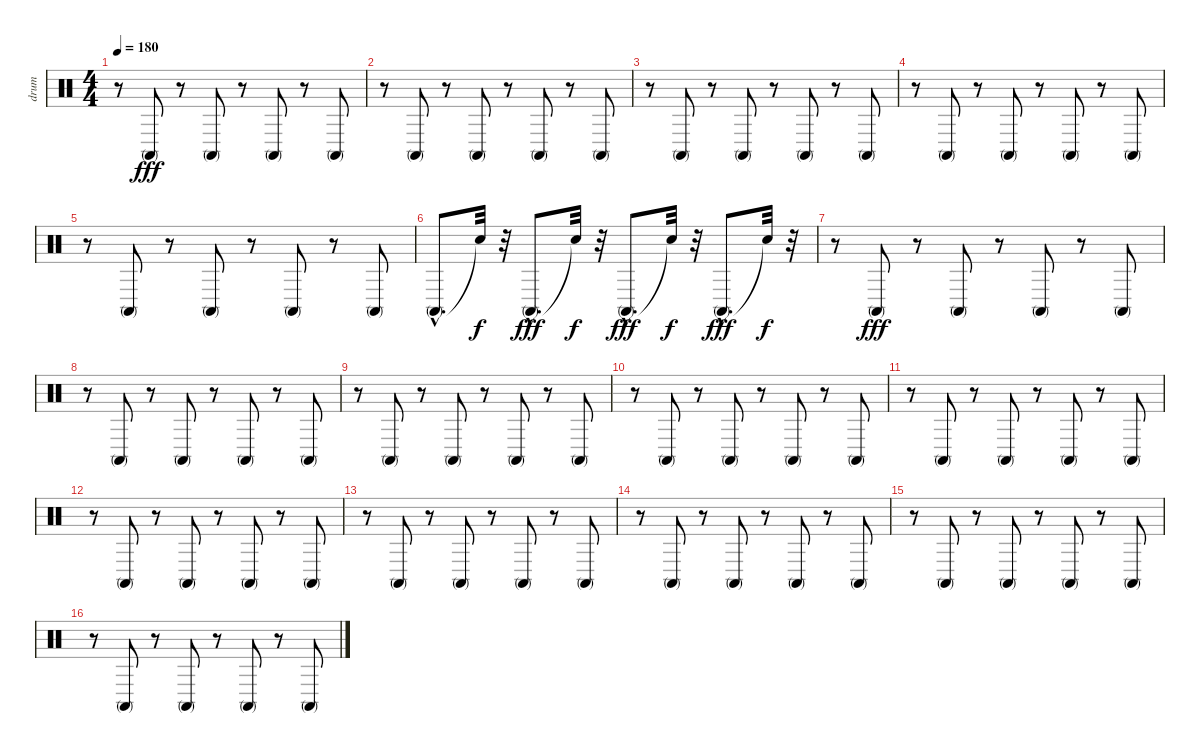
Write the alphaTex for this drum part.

\track ("drum" "drum") {instrument percussion}
\staff {score}
\articulation defaults
\ts (4 4)
\tempo 180
\clef neutral
\ks c
r.8{dy fff} "Conga high (mute)".8 r.8 "Conga high (mute)".8 r.8 "Conga high (mute)".8 r.8 "Conga high (mute)".8 |
r.8 "Conga high (mute)".8 r.8 "Conga high (mute)".8 r.8 "Conga high (mute)".8 r.8 "Conga high (mute)".8 |
r.8 "Conga high (mute)".8 r.8 "Conga high (mute)".8 r.8 "Conga high (mute)".8 r.8 "Conga high (mute)".8 |
r.8 "Conga high (mute)".8 r.8 "Conga high (mute)".8 r.8 "Conga high (mute)".8 r.8 "Conga high (mute)".8 |
r.8 "Conga high (mute)".8 r.8 "Conga high (mute)".8 r.8 "Conga high (mute)".8 r.8 "Conga high (mute)".8 |
"Conga high (mute)"{hac}.8{d} "Snare (hit)"{t}.32{dy f} r.32 "Conga high (mute)"{hac}.8{d dy fff} "Snare (hit)"{t}.32{dy f} r.32 "Conga high (mute)"{hac}.8{d dy fff} "Snare (hit)"{t}.32{dy f} r.32 "Conga high (mute)"{hac}.8{d dy fff} "Snare (hit)"{t}.32{dy f} r.32 |
r.8 "Conga high (mute)".8{dy fff} r.8 "Conga high (mute)".8 r.8 "Conga high (mute)".8 r.8 "Conga high (mute)".8 |
r.8 "Conga high (mute)".8 r.8 "Conga high (mute)".8 r.8 "Conga high (mute)".8 r.8 "Conga high (mute)".8 |
r.8 "Conga high (mute)".8 r.8 "Conga high (mute)".8 r.8 "Conga high (mute)".8 r.8 "Conga high (mute)".8 |
r.8 "Conga high (mute)".8 r.8 "Conga high (mute)".8 r.8 "Conga high (mute)".8 r.8 "Conga high (mute)".8 |
r.8 "Conga high (mute)".8 r.8 "Conga high (mute)".8 r.8 "Conga high (mute)".8 r.8 "Conga high (mute)".8 |
r.8 "Conga high (mute)".8 r.8 "Conga high (mute)".8 r.8 "Conga high (mute)".8 r.8 "Conga high (mute)".8 |
r.8 "Conga high (mute)".8 r.8 "Conga high (mute)".8 r.8 "Conga high (mute)".8 r.8 "Conga high (mute)".8 |
r.8 "Conga high (mute)".8 r.8 "Conga high (mute)".8 r.8 "Conga high (mute)".8 r.8 "Conga high (mute)".8 |
r.8 "Conga high (mute)".8 r.8 "Conga high (mute)".8 r.8 "Conga high (mute)".8 r.8 "Conga high (mute)".8 |
r.8 "Conga high (mute)".8 r.8 "Conga high (mute)".8 r.8 "Conga high (mute)".8 r.8 "Conga high (mute)".8
